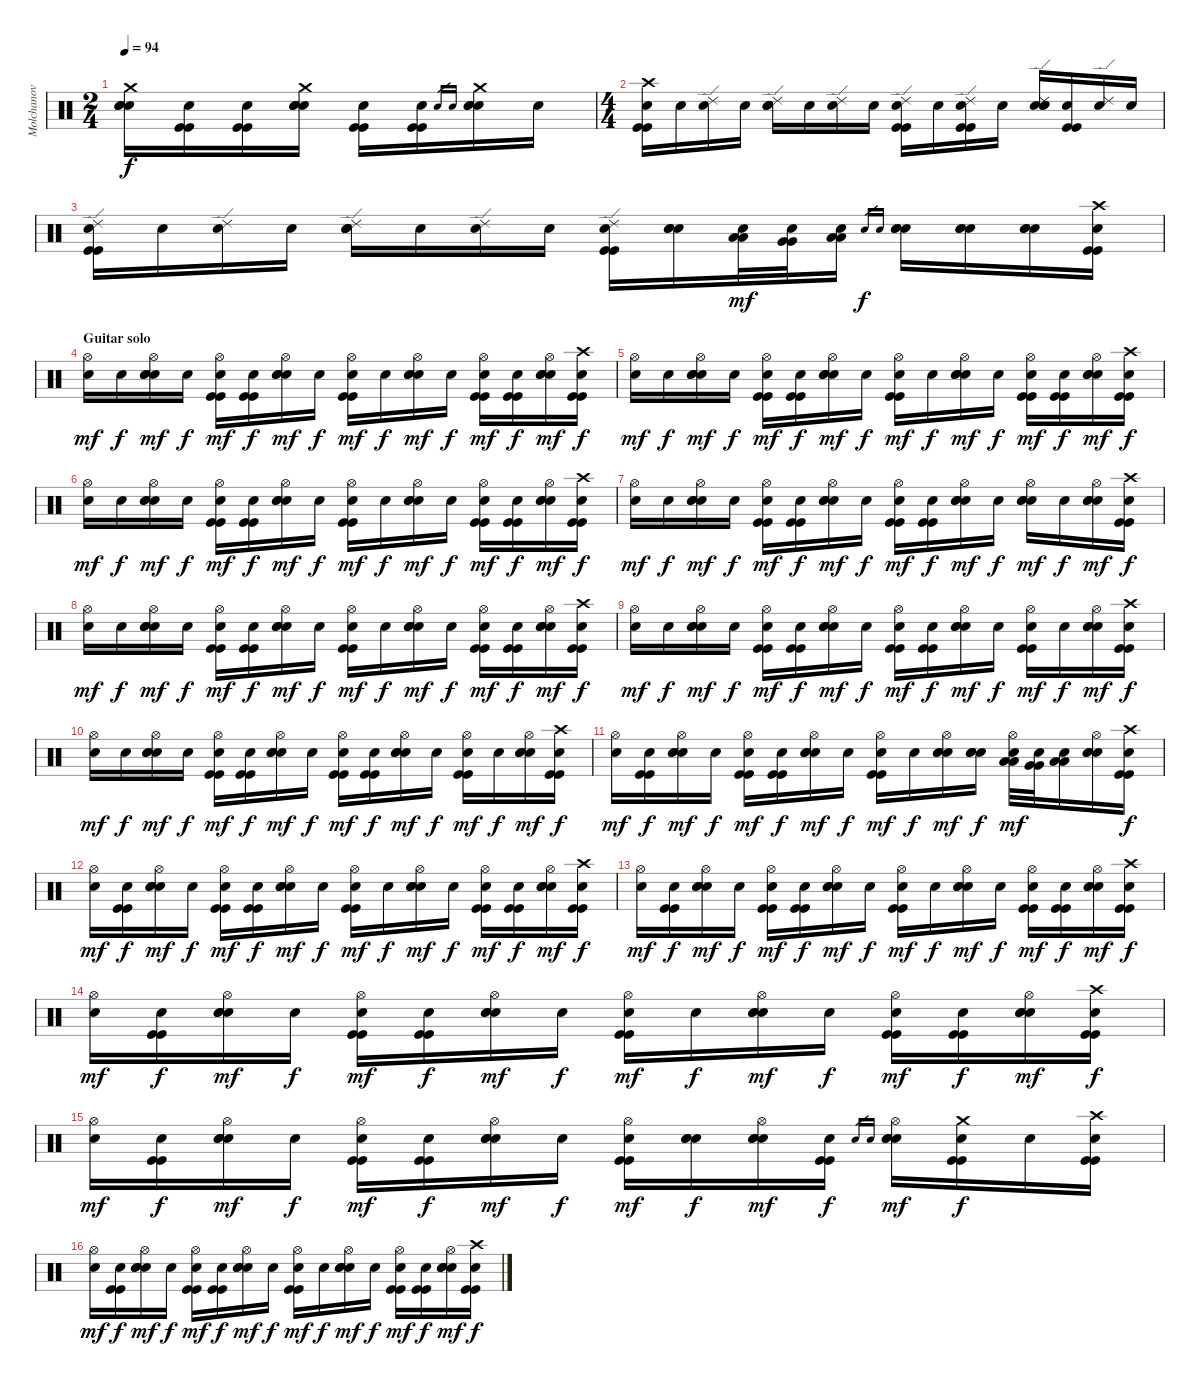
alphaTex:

\track ("Molchanov" "Molchanov") {instrument percussion}
\staff {score}
\articulation defaults
\ts (2 4)
\tempo 94
\clef neutral
\ks c
("Crash medium (hit)" "Electric Snare (hit)" "Electric Snare (hit)" "Snare (hit)"{x}).16{dy f} ("Kick (hit)" "Kick (hit)" "Snare (hit)"{x}).16 ("Kick (hit)" "Kick (hit)" "Snare (hit)"{x}).16 ("Crash medium (hit)" "Electric Snare (hit)" "Electric Snare (hit)" "Snare (hit)"{x}).16 ("Kick (hit)" "Kick (hit)" "Snare (hit)"{x}).16 ("Kick (hit)" "Kick (hit)" "Snare (hit)"{x}).16 "Electric Snare (hit)".16{gr} "Electric Snare (hit)".16{gr} ("Crash medium (hit)" "Electric Snare (hit)" "Electric Snare (hit)" "Snare (hit)"{x}).16 "Snare (hit)"{x}.16 |
\ts (4 4)
("Crash high (hit)" "Kick (hit)" "Kick (hit)" "Snare (hit)"{x}).16 "Snare (hit)"{x}.16 ("Ride (edge) 2" "Snare (hit)"{x}).16 "Snare (hit)"{x}.16 ("Ride (edge) 2" "Electric Snare (hit)" "Electric Snare (hit)" "Snare (hit)"{x}).16 "Snare (hit)"{x}.16 ("Ride (edge) 2" "Snare (hit)"{x}).16 "Snare (hit)"{x}.16 ("Ride (edge) 2" "Kick (hit)" "Kick (hit)" "Snare (hit)"{x}).16 "Snare (hit)"{x}.16 ("Ride (edge) 2" "Kick (hit)" "Kick (hit)" "Snare (hit)"{x}).16 "Snare (hit)"{x}.16 ("Ride (edge) 2" "Electric Snare (hit)" "Electric Snare (hit)" "Snare (hit)"{x}).16 ("Kick (hit)" "Kick (hit)" "Snare (hit)"{x}).16 ("Ride (edge) 2" "Snare (hit)"{x}).16 "Snare (hit)"{x}.16 |
("Ride (edge) 2" "Kick (hit)" "Kick (hit)" "Snare (hit)"{x}).16 "Snare (hit)"{x}.16 ("Ride (edge) 2" "Snare (hit)"{x}).16 "Snare (hit)"{x}.16 ("Ride (edge) 2" "Electric Snare (hit)" "Electric Snare (hit)" "Snare (hit)"{x}).16 "Snare (hit)"{x}.16 ("Ride (edge) 2" "Snare (hit)"{x}).16 "Snare (hit)"{x}.16 ("Ride (edge) 2" "Kick (hit)" "Kick (hit)" "Snare (hit)"{x}).16 ("Electric Snare (hit)" "Electric Snare (hit)" "Snare (hit)"{x}).16 ("Low Tom (hit)" "Low Tom (hit)" "Snare (hit)"{x}).32{dy mf} ("Very Low Tom (hit)" "Very Low Tom (hit)" "Snare (hit)"{x}).32 ("Low Floor Tom (hit)" "Low Floor Tom (hit)" "Snare (hit)"{x}).16 "Electric Snare (hit)".16{gr dy f} "Electric Snare (hit)".16{gr} ("Electric Snare (hit)" "Electric Snare (hit)" "Snare (hit)"{x}).16 ("Electric Snare (hit)" "Electric Snare (hit)" "Snare (hit)"{x}).16 ("Electric Snare (hit)" "Electric Snare (hit)" "Snare (hit)"{x}).16 ("Crash high (hit)" "Kick (hit)" "Kick (hit)" "Snare (hit)"{x}).16 |
\section ("" "Guitar solo")
("Hi-Hat (open)" "Snare (hit)"{x}).16{dy mf} "Snare (hit)"{x}.16{dy f} ("Hi-Hat (open)" "Electric Snare (hit)" "Electric Snare (hit)" "Snare (hit)"{x}).16{dy mf} "Snare (hit)"{x}.16{dy f} ("Hi-Hat (open)" "Kick (hit)" "Kick (hit)" "Snare (hit)"{x}).16{dy mf} ("Kick (hit)" "Kick (hit)" "Snare (hit)"{x}).16{dy f} ("Hi-Hat (open)" "Electric Snare (hit)" "Electric Snare (hit)" "Snare (hit)"{x}).16{dy mf} "Snare (hit)"{x}.16{dy f} ("Hi-Hat (open)" "Kick (hit)" "Kick (hit)" "Snare (hit)"{x}).16{dy mf} "Snare (hit)"{x}.16{dy f} ("Hi-Hat (open)" "Electric Snare (hit)" "Electric Snare (hit)" "Snare (hit)"{x}).16{dy mf} "Snare (hit)"{x}.16{dy f} ("Hi-Hat (open)" "Kick (hit)" "Kick (hit)" "Snare (hit)"{x}).16{dy mf} ("Kick (hit)" "Kick (hit)" "Snare (hit)"{x}).16{dy f} ("Hi-Hat (open)" "Electric Snare (hit)" "Electric Snare (hit)" "Snare (hit)"{x}).16{dy mf} ("Crash high (hit)" "Kick (hit)" "Kick (hit)" "Snare (hit)"{x}).16{dy f} |
("Hi-Hat (open)" "Snare (hit)"{x}).16{dy mf} "Snare (hit)"{x}.16{dy f} ("Hi-Hat (open)" "Electric Snare (hit)" "Electric Snare (hit)" "Snare (hit)"{x}).16{dy mf} "Snare (hit)"{x}.16{dy f} ("Hi-Hat (open)" "Kick (hit)" "Kick (hit)" "Snare (hit)"{x}).16{dy mf} ("Kick (hit)" "Kick (hit)" "Snare (hit)"{x}).16{dy f} ("Hi-Hat (open)" "Electric Snare (hit)" "Electric Snare (hit)" "Snare (hit)"{x}).16{dy mf} "Snare (hit)"{x}.16{dy f} ("Hi-Hat (open)" "Kick (hit)" "Kick (hit)" "Snare (hit)"{x}).16{dy mf} "Snare (hit)"{x}.16{dy f} ("Hi-Hat (open)" "Electric Snare (hit)" "Electric Snare (hit)" "Snare (hit)"{x}).16{dy mf} "Snare (hit)"{x}.16{dy f} ("Hi-Hat (open)" "Kick (hit)" "Kick (hit)" "Snare (hit)"{x}).16{dy mf} ("Kick (hit)" "Kick (hit)" "Snare (hit)"{x}).16{dy f} ("Hi-Hat (open)" "Electric Snare (hit)" "Electric Snare (hit)" "Snare (hit)"{x}).16{dy mf} ("Crash high (hit)" "Kick (hit)" "Kick (hit)" "Snare (hit)"{x}).16{dy f} |
("Hi-Hat (open)" "Snare (hit)"{x}).16{dy mf} "Snare (hit)"{x}.16{dy f} ("Hi-Hat (open)" "Electric Snare (hit)" "Electric Snare (hit)" "Snare (hit)"{x}).16{dy mf} "Snare (hit)"{x}.16{dy f} ("Hi-Hat (open)" "Kick (hit)" "Kick (hit)" "Snare (hit)"{x}).16{dy mf} ("Kick (hit)" "Kick (hit)" "Snare (hit)"{x}).16{dy f} ("Hi-Hat (open)" "Electric Snare (hit)" "Electric Snare (hit)" "Snare (hit)"{x}).16{dy mf} "Snare (hit)"{x}.16{dy f} ("Hi-Hat (open)" "Kick (hit)" "Kick (hit)" "Snare (hit)"{x}).16{dy mf} "Snare (hit)"{x}.16{dy f} ("Hi-Hat (open)" "Electric Snare (hit)" "Electric Snare (hit)" "Snare (hit)"{x}).16{dy mf} "Snare (hit)"{x}.16{dy f} ("Hi-Hat (open)" "Kick (hit)" "Kick (hit)" "Snare (hit)"{x}).16{dy mf} ("Kick (hit)" "Kick (hit)" "Snare (hit)"{x}).16{dy f} ("Hi-Hat (open)" "Electric Snare (hit)" "Electric Snare (hit)" "Snare (hit)"{x}).16{dy mf} ("Crash high (hit)" "Kick (hit)" "Kick (hit)" "Snare (hit)"{x}).16{dy f} |
("Hi-Hat (open)" "Snare (hit)"{x}).16{dy mf} "Snare (hit)"{x}.16{dy f} ("Hi-Hat (open)" "Electric Snare (hit)" "Electric Snare (hit)" "Snare (hit)"{x}).16{dy mf} "Snare (hit)"{x}.16{dy f} ("Hi-Hat (open)" "Kick (hit)" "Kick (hit)" "Snare (hit)"{x}).16{dy mf} ("Kick (hit)" "Kick (hit)" "Snare (hit)"{x}).16{dy f} ("Hi-Hat (open)" "Electric Snare (hit)" "Electric Snare (hit)" "Snare (hit)"{x}).16{dy mf} "Snare (hit)"{x}.16{dy f} ("Hi-Hat (open)" "Kick (hit)" "Kick (hit)" "Snare (hit)"{x}).16{dy mf} ("Kick (hit)" "Kick (hit)" "Snare (hit)"{x}).16{dy f} ("Hi-Hat (open)" "Electric Snare (hit)" "Electric Snare (hit)" "Snare (hit)"{x}).16{dy mf} "Snare (hit)"{x}.16{dy f} ("Hi-Hat (open)" "Electric Snare (hit)" "Electric Snare (hit)" "Snare (hit)"{x}).16{dy mf} "Snare (hit)"{x}.16{dy f} ("Hi-Hat (open)" "Electric Snare (hit)" "Electric Snare (hit)" "Snare (hit)"{x}).16{dy mf} ("Crash high (hit)" "Kick (hit)" "Kick (hit)" "Snare (hit)"{x}).16{dy f} |
("Hi-Hat (open)" "Snare (hit)"{x}).16{dy mf} "Snare (hit)"{x}.16{dy f} ("Hi-Hat (open)" "Electric Snare (hit)" "Electric Snare (hit)" "Snare (hit)"{x}).16{dy mf} "Snare (hit)"{x}.16{dy f} ("Hi-Hat (open)" "Kick (hit)" "Kick (hit)" "Snare (hit)"{x}).16{dy mf} ("Kick (hit)" "Kick (hit)" "Snare (hit)"{x}).16{dy f} ("Hi-Hat (open)" "Electric Snare (hit)" "Electric Snare (hit)" "Snare (hit)"{x}).16{dy mf} "Snare (hit)"{x}.16{dy f} ("Hi-Hat (open)" "Kick (hit)" "Kick (hit)" "Snare (hit)"{x}).16{dy mf} "Snare (hit)"{x}.16{dy f} ("Hi-Hat (open)" "Electric Snare (hit)" "Electric Snare (hit)" "Snare (hit)"{x}).16{dy mf} "Snare (hit)"{x}.16{dy f} ("Hi-Hat (open)" "Kick (hit)" "Kick (hit)" "Snare (hit)"{x}).16{dy mf} ("Kick (hit)" "Kick (hit)" "Snare (hit)"{x}).16{dy f} ("Hi-Hat (open)" "Electric Snare (hit)" "Electric Snare (hit)" "Snare (hit)"{x}).16{dy mf} ("Crash high (hit)" "Kick (hit)" "Kick (hit)" "Snare (hit)"{x}).16{dy f} |
("Hi-Hat (open)" "Snare (hit)"{x}).16{dy mf} "Snare (hit)"{x}.16{dy f} ("Hi-Hat (open)" "Electric Snare (hit)" "Electric Snare (hit)" "Snare (hit)"{x}).16{dy mf} "Snare (hit)"{x}.16{dy f} ("Hi-Hat (open)" "Kick (hit)" "Kick (hit)" "Snare (hit)"{x}).16{dy mf} ("Kick (hit)" "Kick (hit)" "Snare (hit)"{x}).16{dy f} ("Hi-Hat (open)" "Electric Snare (hit)" "Electric Snare (hit)" "Snare (hit)"{x}).16{dy mf} "Snare (hit)"{x}.16{dy f} ("Hi-Hat (open)" "Kick (hit)" "Kick (hit)" "Snare (hit)"{x}).16{dy mf} ("Kick (hit)" "Kick (hit)" "Snare (hit)"{x}).16{dy f} ("Hi-Hat (open)" "Electric Snare (hit)" "Electric Snare (hit)" "Snare (hit)"{x}).16{dy mf} "Snare (hit)"{x}.16{dy f} ("Hi-Hat (open)" "Kick (hit)" "Kick (hit)" "Snare (hit)"{x}).16{dy mf} "Snare (hit)"{x}.16{dy f} ("Hi-Hat (open)" "Electric Snare (hit)" "Electric Snare (hit)" "Snare (hit)"{x}).16{dy mf} ("Crash high (hit)" "Kick (hit)" "Kick (hit)" "Snare (hit)"{x}).16{dy f} |
("Hi-Hat (open)" "Snare (hit)"{x}).16{dy mf} "Snare (hit)"{x}.16{dy f} ("Hi-Hat (open)" "Electric Snare (hit)" "Electric Snare (hit)" "Snare (hit)"{x}).16{dy mf} "Snare (hit)"{x}.16{dy f} ("Hi-Hat (open)" "Kick (hit)" "Kick (hit)" "Snare (hit)"{x}).16{dy mf} ("Kick (hit)" "Kick (hit)" "Snare (hit)"{x}).16{dy f} ("Hi-Hat (open)" "Electric Snare (hit)" "Electric Snare (hit)" "Snare (hit)"{x}).16{dy mf} "Snare (hit)"{x}.16{dy f} ("Hi-Hat (open)" "Kick (hit)" "Kick (hit)" "Snare (hit)"{x}).16{dy mf} ("Kick (hit)" "Kick (hit)" "Snare (hit)"{x}).16{dy f} ("Hi-Hat (open)" "Electric Snare (hit)" "Electric Snare (hit)" "Snare (hit)"{x}).16{dy mf} "Snare (hit)"{x}.16{dy f} ("Hi-Hat (open)" "Kick (hit)" "Kick (hit)" "Snare (hit)"{x}).16{dy mf} "Snare (hit)"{x}.16{dy f} ("Hi-Hat (open)" "Electric Snare (hit)" "Electric Snare (hit)" "Snare (hit)"{x}).16{dy mf} ("Crash high (hit)" "Kick (hit)" "Kick (hit)" "Snare (hit)"{x}).16{dy f} |
("Hi-Hat (open)" "Snare (hit)"{x}).16{dy mf} ("Kick (hit)" "Kick (hit)" "Snare (hit)"{x}).16{dy f} ("Hi-Hat (open)" "Electric Snare (hit)" "Electric Snare (hit)" "Snare (hit)"{x}).16{dy mf} "Snare (hit)"{x}.16{dy f} ("Hi-Hat (open)" "Kick (hit)" "Kick (hit)" "Snare (hit)"{x}).16{dy mf} ("Kick (hit)" "Kick (hit)" "Snare (hit)"{x}).16{dy f} ("Hi-Hat (open)" "Electric Snare (hit)" "Electric Snare (hit)" "Snare (hit)"{x}).16{dy mf} "Snare (hit)"{x}.16{dy f} ("Hi-Hat (open)" "Kick (hit)" "Kick (hit)" "Snare (hit)"{x}).16{dy mf} "Snare (hit)"{x}.16{dy f} ("Hi-Hat (open)" "Electric Snare (hit)" "Electric Snare (hit)" "Snare (hit)"{x}).16{dy mf} ("Electric Snare (hit)" "Electric Snare (hit)" "Snare (hit)"{x}).16{dy f} ("Hi-Hat (open)" "Low Tom (hit)" "Low Tom (hit)" "Snare (hit)"{x}).32{dy mf} ("Very Low Tom (hit)" "Very Low Tom (hit)" "Snare (hit)"{x}).32 ("Low Floor Tom (hit)" "Low Floor Tom (hit)" "Snare (hit)"{x}).16 ("Hi-Hat (open)" "Electric Snare (hit)" "Electric Snare (hit)" "Snare (hit)"{x}).16 ("Crash high (hit)" "Kick (hit)" "Kick (hit)" "Snare (hit)"{x}).16{dy f} |
("Hi-Hat (open)" "Snare (hit)"{x}).16{dy mf} ("Kick (hit)" "Kick (hit)" "Snare (hit)"{x}).16{dy f} ("Hi-Hat (open)" "Electric Snare (hit)" "Electric Snare (hit)" "Snare (hit)"{x}).16{dy mf} "Snare (hit)"{x}.16{dy f} ("Hi-Hat (open)" "Kick (hit)" "Kick (hit)" "Snare (hit)"{x}).16{dy mf} ("Kick (hit)" "Kick (hit)" "Snare (hit)"{x}).16{dy f} ("Hi-Hat (open)" "Electric Snare (hit)" "Electric Snare (hit)" "Snare (hit)"{x}).16{dy mf} "Snare (hit)"{x}.16{dy f} ("Hi-Hat (open)" "Kick (hit)" "Kick (hit)" "Snare (hit)"{x}).16{dy mf} "Snare (hit)"{x}.16{dy f} ("Hi-Hat (open)" "Electric Snare (hit)" "Electric Snare (hit)" "Snare (hit)"{x}).16{dy mf} "Snare (hit)"{x}.16{dy f} ("Hi-Hat (open)" "Kick (hit)" "Kick (hit)" "Snare (hit)"{x}).16{dy mf} ("Kick (hit)" "Kick (hit)" "Snare (hit)"{x}).16{dy f} ("Hi-Hat (open)" "Electric Snare (hit)" "Electric Snare (hit)" "Snare (hit)"{x}).16{dy mf} ("Crash high (hit)" "Kick (hit)" "Kick (hit)" "Snare (hit)"{x}).16{dy f} |
("Hi-Hat (open)" "Snare (hit)"{x}).16{dy mf} ("Kick (hit)" "Kick (hit)" "Snare (hit)"{x}).16{dy f} ("Hi-Hat (open)" "Electric Snare (hit)" "Electric Snare (hit)" "Snare (hit)"{x}).16{dy mf} "Snare (hit)"{x}.16{dy f} ("Hi-Hat (open)" "Kick (hit)" "Kick (hit)" "Snare (hit)"{x}).16{dy mf} ("Kick (hit)" "Kick (hit)" "Snare (hit)"{x}).16{dy f} ("Hi-Hat (open)" "Electric Snare (hit)" "Electric Snare (hit)" "Snare (hit)"{x}).16{dy mf} "Snare (hit)"{x}.16{dy f} ("Hi-Hat (open)" "Kick (hit)" "Kick (hit)" "Snare (hit)"{x}).16{dy mf} "Snare (hit)"{x}.16{dy f} ("Hi-Hat (open)" "Electric Snare (hit)" "Electric Snare (hit)" "Snare (hit)"{x}).16{dy mf} "Snare (hit)"{x}.16{dy f} ("Hi-Hat (open)" "Kick (hit)" "Kick (hit)" "Snare (hit)"{x}).16{dy mf} ("Kick (hit)" "Kick (hit)" "Snare (hit)"{x}).16{dy f} ("Hi-Hat (open)" "Electric Snare (hit)" "Electric Snare (hit)" "Snare (hit)"{x}).16{dy mf} ("Crash high (hit)" "Kick (hit)" "Kick (hit)" "Snare (hit)"{x}).16{dy f} |
("Hi-Hat (open)" "Snare (hit)"{x}).16{dy mf} ("Kick (hit)" "Kick (hit)" "Snare (hit)"{x}).16{dy f} ("Hi-Hat (open)" "Electric Snare (hit)" "Electric Snare (hit)" "Snare (hit)"{x}).16{dy mf} "Snare (hit)"{x}.16{dy f} ("Hi-Hat (open)" "Kick (hit)" "Kick (hit)" "Snare (hit)"{x}).16{dy mf} ("Kick (hit)" "Kick (hit)" "Snare (hit)"{x}).16{dy f} ("Hi-Hat (open)" "Electric Snare (hit)" "Electric Snare (hit)" "Snare (hit)"{x}).16{dy mf} "Snare (hit)"{x}.16{dy f} ("Hi-Hat (open)" "Kick (hit)" "Kick (hit)" "Snare (hit)"{x}).16{dy mf} "Snare (hit)"{x}.16{dy f} ("Hi-Hat (open)" "Electric Snare (hit)" "Electric Snare (hit)" "Snare (hit)"{x}).16{dy mf} "Snare (hit)"{x}.16{dy f} ("Hi-Hat (open)" "Kick (hit)" "Kick (hit)" "Snare (hit)"{x}).16{dy mf} ("Kick (hit)" "Kick (hit)" "Snare (hit)"{x}).16{dy f} ("Hi-Hat (open)" "Electric Snare (hit)" "Electric Snare (hit)" "Snare (hit)"{x}).16{dy mf} ("Crash high (hit)" "Kick (hit)" "Kick (hit)" "Snare (hit)"{x}).16{dy f} |
("Hi-Hat (open)" "Snare (hit)"{x}).16{dy mf} ("Kick (hit)" "Kick (hit)" "Snare (hit)"{x}).16{dy f} ("Hi-Hat (open)" "Electric Snare (hit)" "Electric Snare (hit)" "Snare (hit)"{x}).16{dy mf} "Snare (hit)"{x}.16{dy f} ("Hi-Hat (open)" "Kick (hit)" "Kick (hit)" "Snare (hit)"{x}).16{dy mf} ("Kick (hit)" "Kick (hit)" "Snare (hit)"{x}).16{dy f} ("Hi-Hat (open)" "Electric Snare (hit)" "Electric Snare (hit)" "Snare (hit)"{x}).16{dy mf} "Snare (hit)"{x}.16{dy f} ("Hi-Hat (open)" "Kick (hit)" "Kick (hit)" "Snare (hit)"{x}).16{dy mf} ("Electric Snare (hit)" "Electric Snare (hit)" "Snare (hit)"{x}).16{dy f} ("Hi-Hat (open)" "Electric Snare (hit)" "Electric Snare (hit)" "Snare (hit)"{x}).16{dy mf} ("Kick (hit)" "Kick (hit)" "Snare (hit)"{x}).16{dy f} "Electric Snare (hit)".16{gr} "Electric Snare (hit)".16{gr} ("Hi-Hat (open)" "Electric Snare (hit)" "Electric Snare (hit)" "Snare (hit)"{x}).16{dy mf} ("Crash medium (hit)" "Kick (hit)" "Kick (hit)" "Snare (hit)"{x}).16{dy f} "Snare (hit)"{x}.16 ("Crash high (hit)" "Kick (hit)" "Kick (hit)" "Snare (hit)"{x}).16 |
("Hi-Hat (open)" "Snare (hit)"{x}).16{dy mf} ("Kick (hit)" "Kick (hit)" "Snare (hit)"{x}).16{dy f} ("Hi-Hat (open)" "Electric Snare (hit)" "Electric Snare (hit)" "Snare (hit)"{x}).16{dy mf} "Snare (hit)"{x}.16{dy f} ("Hi-Hat (open)" "Kick (hit)" "Kick (hit)" "Snare (hit)"{x}).16{dy mf} ("Kick (hit)" "Kick (hit)" "Snare (hit)"{x}).16{dy f} ("Hi-Hat (open)" "Electric Snare (hit)" "Electric Snare (hit)" "Snare (hit)"{x}).16{dy mf} "Snare (hit)"{x}.16{dy f} ("Hi-Hat (open)" "Kick (hit)" "Kick (hit)" "Snare (hit)"{x}).16{dy mf} "Snare (hit)"{x}.16{dy f} ("Hi-Hat (open)" "Electric Snare (hit)" "Electric Snare (hit)" "Snare (hit)"{x}).16{dy mf} "Snare (hit)"{x}.16{dy f} ("Hi-Hat (open)" "Kick (hit)" "Kick (hit)" "Snare (hit)"{x}).16{dy mf} ("Kick (hit)" "Kick (hit)" "Snare (hit)"{x}).16{dy f} ("Hi-Hat (open)" "Electric Snare (hit)" "Electric Snare (hit)" "Snare (hit)"{x}).16{dy mf} ("Crash high (hit)" "Kick (hit)" "Kick (hit)" "Snare (hit)"{x}).16{dy f}
